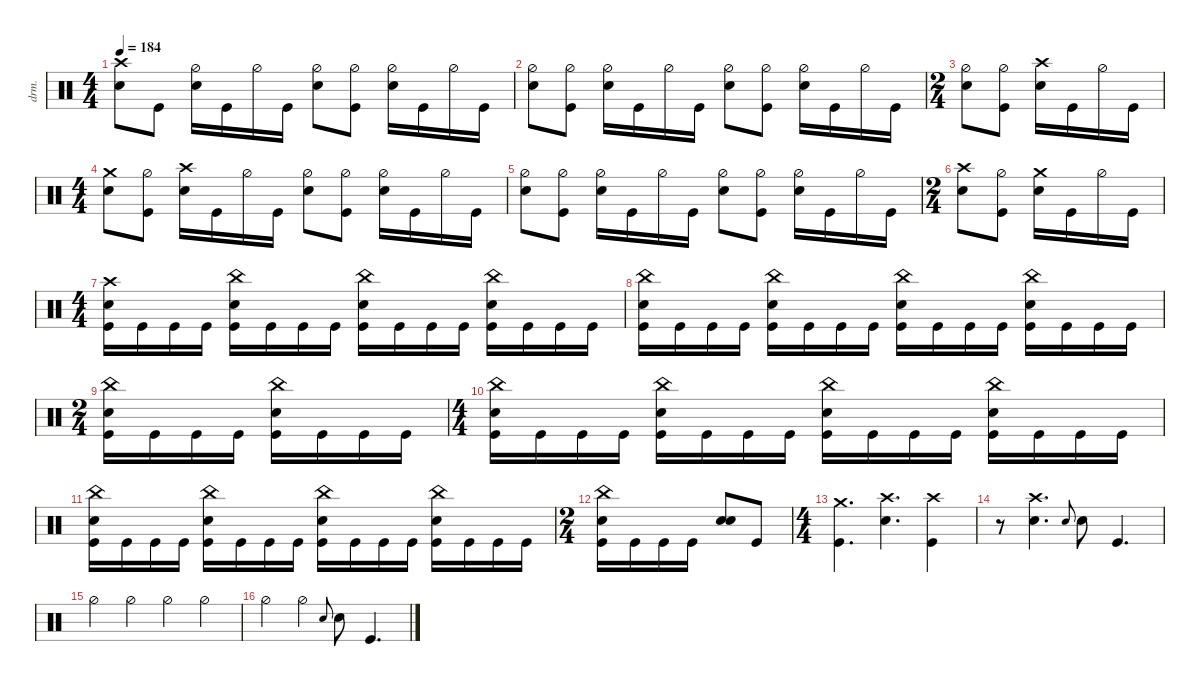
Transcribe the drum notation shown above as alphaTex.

\defaultSystemsLayout 4
\hideDynamics
\bracketExtendMode nobrackets
\otherSystemsTrackNameOrientation horizontal
\track ("Drums" "drm.") {defaultSystemsLayout 4 multiBarRest instrument percussion}
\staff {score}
\articulation defaults
\ts (4 4)
\tempo 184
\clef neutral
\ks c
("Crash high (hit)" "Snare (hit) 2").8{dy f} "Kick (hit)".8 ("Snare (hit) 2" "Hi-Hat (half)").16 "Kick (hit)".16 "Hi-Hat (half)".16 "Kick (hit)".16 ("Snare (hit) 2" "Hi-Hat (half)").8 ("Kick (hit)" "Hi-Hat (half)").8 ("Snare (hit) 2" "Hi-Hat (half)").16 "Kick (hit)".16 "Hi-Hat (half)".16 "Kick (hit)".16 |
("Snare (hit) 2" "Hi-Hat (half)").8 ("Kick (hit)" "Hi-Hat (half)").8 ("Snare (hit) 2" "Hi-Hat (half)").16 "Kick (hit)".16 "Hi-Hat (half)".16 "Kick (hit)".16 ("Snare (hit) 2" "Hi-Hat (half)").8 ("Kick (hit)" "Hi-Hat (half)").8 ("Snare (hit) 2" "Hi-Hat (half)").16 "Kick (hit)".16 "Hi-Hat (half)".16 "Kick (hit)".16 |
\ts (2 4)
\beaming (8 2 2 2 2)
("Snare (hit) 2" "Hi-Hat (half)").8 ("Kick (hit)" "Hi-Hat (half)").8 ("Snare (hit) 2" "Crash high (hit)").16 "Kick (hit)".16 "Hi-Hat (half)".16 "Kick (hit)".16 |
\ts (4 4)
\beaming (8 2 2 2 2)
("Snare (hit) 2" "Crash medium (hit)").8 ("Kick (hit)" "Hi-Hat (half)").8 ("Snare (hit) 2" "Crash high (hit)").16 "Kick (hit)".16 "Hi-Hat (half)".16 "Kick (hit)".16 ("Snare (hit) 2" "Hi-Hat (half)").8 ("Kick (hit)" "Hi-Hat (half)").8 ("Snare (hit) 2" "Hi-Hat (half)").16 "Kick (hit)".16 "Hi-Hat (half)".16 "Kick (hit)".16 |
("Snare (hit) 2" "Hi-Hat (half)").8 ("Kick (hit)" "Hi-Hat (half)").8 ("Snare (hit) 2" "Hi-Hat (half)").16 "Kick (hit)".16 "Hi-Hat (half)".16 "Kick (hit)".16 ("Snare (hit) 2" "Hi-Hat (half)").8 ("Kick (hit)" "Hi-Hat (half)").8 ("Snare (hit) 2" "Hi-Hat (half)").16 "Kick (hit)".16 "Hi-Hat (half)".16 "Kick (hit)".16 |
\ts (2 4)
\beaming (8 2 2 2 2)
("Snare (hit) 2" "Crash high (hit)").8 ("Kick (hit)" "Hi-Hat (half)").8 ("Snare (hit) 2" "Crash medium (hit)").16 "Kick (hit)".16 "Hi-Hat (half)".16 "Kick (hit)".16 |
\ts (4 4)
\beaming (8 2 2 2 2)
("Snare (hit) 2" "Crash high (hit)" "Kick (hit)").16 "Kick (hit)".16 "Kick (hit)".16 "Kick (hit)".16 ("Kick (hit)" "China (hit)" "Snare (hit) 2").16 "Kick (hit)".16 "Kick (hit)".16 "Kick (hit)".16 ("Kick (hit)" "China (hit)" "Snare (hit) 2").16 "Kick (hit)".16 "Kick (hit)".16 "Kick (hit)".16 ("Kick (hit)" "China (hit)" "Snare (hit) 2").16 "Kick (hit)".16 "Kick (hit)".16 "Kick (hit)".16 |
("Kick (hit)" "China (hit)" "Snare (hit) 2").16 "Kick (hit)".16 "Kick (hit)".16 "Kick (hit)".16 ("Kick (hit)" "China (hit)" "Snare (hit) 2").16 "Kick (hit)".16 "Kick (hit)".16 "Kick (hit)".16 ("Kick (hit)" "China (hit)" "Snare (hit) 2").16 "Kick (hit)".16 "Kick (hit)".16 "Kick (hit)".16 ("Kick (hit)" "China (hit)" "Snare (hit) 2").16 "Kick (hit)".16 "Kick (hit)".16 "Kick (hit)".16 |
\ts (2 4)
\beaming (8 2 2 2 2)
("Kick (hit)" "China (hit)" "Snare (hit) 2").16 "Kick (hit)".16 "Kick (hit)".16 "Kick (hit)".16 ("Kick (hit)" "China (hit)" "Snare (hit) 2").16 "Kick (hit)".16 "Kick (hit)".16 "Kick (hit)".16 |
\ts (4 4)
\beaming (8 2 2 2 2)
("Kick (hit)" "China (hit)" "Snare (hit) 2").16 "Kick (hit)".16 "Kick (hit)".16 "Kick (hit)".16 ("Kick (hit)" "China (hit)" "Snare (hit) 2").16 "Kick (hit)".16 "Kick (hit)".16 "Kick (hit)".16 ("Kick (hit)" "China (hit)" "Snare (hit) 2").16 "Kick (hit)".16 "Kick (hit)".16 "Kick (hit)".16 ("Kick (hit)" "China (hit)" "Snare (hit) 2").16 "Kick (hit)".16 "Kick (hit)".16 "Kick (hit)".16 |
("Kick (hit)" "China (hit)" "Snare (hit) 2").16 "Kick (hit)".16 "Kick (hit)".16 "Kick (hit)".16 ("Kick (hit)" "China (hit)" "Snare (hit) 2").16 "Kick (hit)".16 "Kick (hit)".16 "Kick (hit)".16 ("Kick (hit)" "China (hit)" "Snare (hit) 2").16 "Kick (hit)".16 "Kick (hit)".16 "Kick (hit)".16 ("Kick (hit)" "China (hit)" "Snare (hit) 2").16 "Kick (hit)".16 "Kick (hit)".16 "Kick (hit)".16 |
\ts (2 4)
\beaming (8 2 2 2 2)
("Kick (hit)" "China (hit)" "Snare (hit) 2").16 "Kick (hit)".16 "Kick (hit)".16 "Kick (hit)".16 ("Snare (hit) 2" "Snare (hit) 2").8 "Kick (hit)".8 |
\ts (4 4)
\beaming (8 2 2 2 2)
("Crash medium (hit)" "Kick (hit)").4{d} ("Snare (hit) 2" "Crash high (hit)").4{d} ("Crash high (hit)" "Kick (hit)").4 |
r.8 ("Snare (hit) 2" "Crash high (hit)").4{d} "Snare (hit) 2".8{gr onbeat} "Snare (hit) 2".8 "Kick (hit)".4{d} |
"Hi-Hat (half)".4 "Hi-Hat (half)".4 "Hi-Hat (half)".4 "Hi-Hat (half)".4 |
"Hi-Hat (half)".4 "Hi-Hat (half)".4 "Snare (hit) 2".8{gr onbeat} "Snare (hit) 2".8 "Kick (hit)".4{d}
